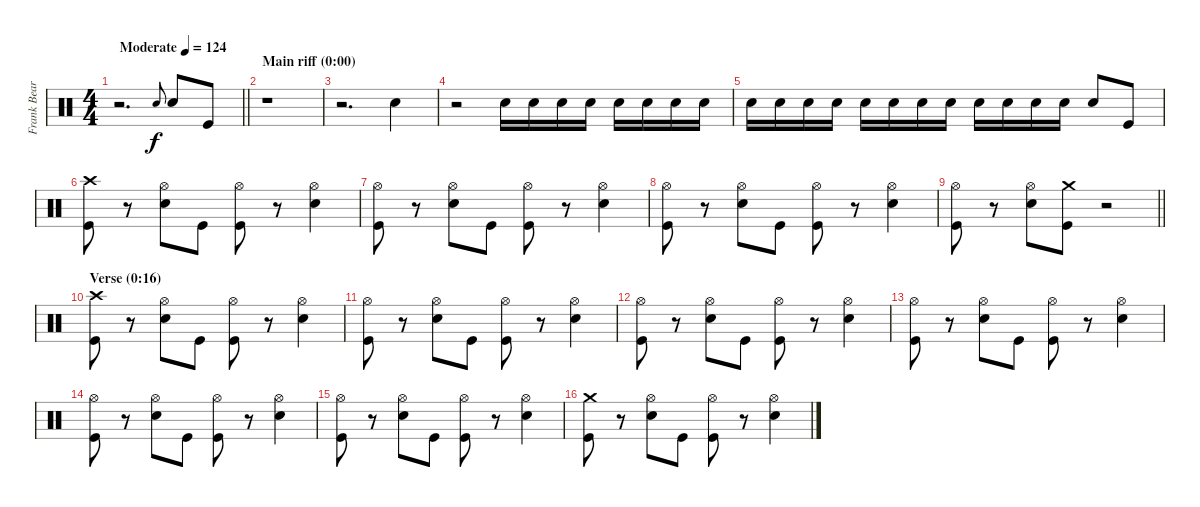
\track ("Frank Beard" "Frank Bear") {instrument percussion}
\staff {score}
\articulation defaults
\ts (4 4)
\tempo (124 "Moderate")
\clef neutral
\barLineRight lightlight
\ks c
r.2{d dy f} "Electric Snare (hit)".8{gr onbeat} "Electric Snare (hit)".8 "Kick (hit)".8 |
\section ("" "Main riff (0:00)")
r.1 |
r.2{d} "Electric Snare (hit)".4 |
r.2 "Electric Snare (hit)".16{volume 6} "Electric Snare (hit)".16 "Electric Snare (hit)".16{volume 7} "Electric Snare (hit)".16 "Electric Snare (hit)".16{volume 8} "Electric Snare (hit)".16 "Electric Snare (hit)".16{volume 9} "Electric Snare (hit)".16 |
"Electric Snare (hit)".16{volume 10} "Electric Snare (hit)".16 "Electric Snare (hit)".16{volume 11} "Electric Snare (hit)".16 "Electric Snare (hit)".16{volume 12} "Electric Snare (hit)".16 "Electric Snare (hit)".16{volume 13} "Electric Snare (hit)".16 "Electric Snare (hit)".16{volume 14} "Electric Snare (hit)".16 "Electric Snare (hit)".16{volume 15} "Electric Snare (hit)".16 "Electric Snare (hit)".8{volume 16} "Kick (hit)".8 |
("Crash high (hit)" "Kick (hit)").8 r.8 ("Hi-Hat (open)" "Electric Snare (hit)").8 "Kick (hit)".8 ("Hi-Hat (open)" "Kick (hit)").8 r.8 ("Hi-Hat (open)" "Electric Snare (hit)").4 |
("Hi-Hat (open)" "Kick (hit)").8 r.8 ("Hi-Hat (open)" "Electric Snare (hit)").8 "Kick (hit)".8 ("Hi-Hat (open)" "Kick (hit)").8 r.8 ("Hi-Hat (open)" "Electric Snare (hit)").4 |
("Hi-Hat (open)" "Kick (hit)").8 r.8 ("Hi-Hat (open)" "Electric Snare (hit)").8 "Kick (hit)".8 ("Hi-Hat (open)" "Kick (hit)").8 r.8 ("Hi-Hat (open)" "Electric Snare (hit)").4 |
\barLineRight lightlight
("Hi-Hat (open)" "Kick (hit)").8 r.8 ("Hi-Hat (open)" "Electric Snare (hit)").8 ("Crash medium (hit)" "Kick (hit)").8 r.2 |
\section ("" "Verse (0:16)")
("Crash high (hit)" "Kick (hit)").8 r.8 ("Hi-Hat (open)" "Electric Snare (hit)").8 "Kick (hit)".8 ("Hi-Hat (open)" "Kick (hit)").8 r.8 ("Hi-Hat (open)" "Electric Snare (hit)").4 |
("Hi-Hat (open)" "Kick (hit)").8 r.8 ("Hi-Hat (open)" "Electric Snare (hit)").8 "Kick (hit)".8 ("Hi-Hat (open)" "Kick (hit)").8 r.8 ("Hi-Hat (open)" "Electric Snare (hit)").4 |
("Hi-Hat (open)" "Kick (hit)").8 r.8 ("Hi-Hat (open)" "Electric Snare (hit)").8 "Kick (hit)".8 ("Hi-Hat (open)" "Kick (hit)").8 r.8 ("Hi-Hat (open)" "Electric Snare (hit)").4 |
("Hi-Hat (open)" "Kick (hit)").8 r.8 ("Hi-Hat (open)" "Electric Snare (hit)").8 "Kick (hit)".8 ("Hi-Hat (open)" "Kick (hit)").8 r.8 ("Hi-Hat (open)" "Electric Snare (hit)").4 |
("Hi-Hat (open)" "Kick (hit)").8 r.8 ("Hi-Hat (open)" "Electric Snare (hit)").8 "Kick (hit)".8 ("Hi-Hat (open)" "Kick (hit)").8 r.8 ("Hi-Hat (open)" "Electric Snare (hit)").4 |
("Hi-Hat (open)" "Kick (hit)").8 r.8 ("Hi-Hat (open)" "Electric Snare (hit)").8 "Kick (hit)".8 ("Hi-Hat (open)" "Kick (hit)").8 r.8 ("Hi-Hat (open)" "Electric Snare (hit)").4 |
("Crash medium (hit)" "Kick (hit)").8 r.8 ("Hi-Hat (open)" "Electric Snare (hit)").8 "Kick (hit)".8 ("Hi-Hat (open)" "Kick (hit)").8 r.8 ("Hi-Hat (open)" "Electric Snare (hit)").4
